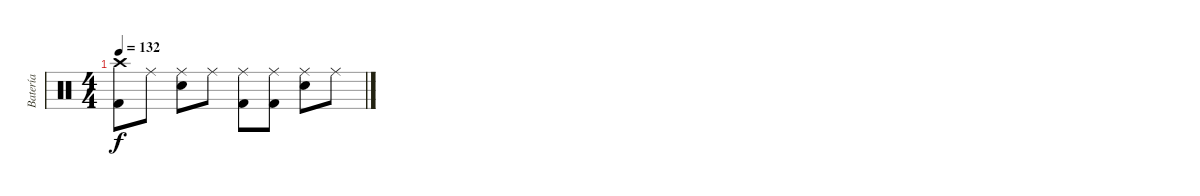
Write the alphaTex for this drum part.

\track ("Batería" "Batería") {instrument percussion}
\staff {score}
\articulation defaults
\ts (4 4)
\tempo 132
\clef neutral
\ks c
("Crash high (hit)" "Kick (hit) 2").8{dy f} "Ride (middle)".8 ("Ride (middle)" "Snare (hit) 2").8 "Ride (middle)".8 ("Ride (middle)" "Kick (hit) 2").8 ("Ride (middle)" "Kick (hit) 2").8 ("Ride (middle)" "Snare (hit) 2").8 "Ride (middle)".8
